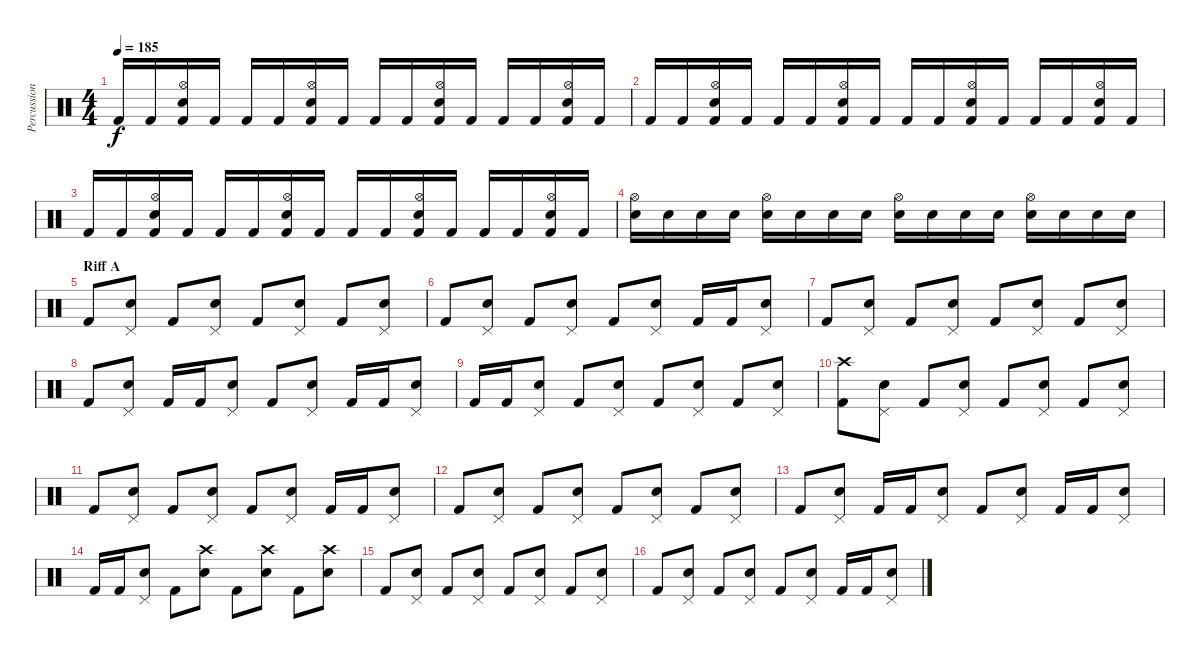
\track ("Percussions" "Percussion") {instrument percussion}
\staff {score}
\articulation defaults
\ts (4 4)
\tempo 185
\clef neutral
\ks c "Kick (hit) 2".16{dy f} "Kick (hit) 2".16
("Hi-Hat (open)" "Snare (hit) 2" "Kick (hit) 2").16 "Kick (hit) 2".16 "Kick (hit) 2".16 "Kick (hit) 2".16 ("Hi-Hat (open)" "Snare (hit) 2" "Kick (hit) 2").16 "Kick (hit) 2".16 "Kick (hit) 2".16 "Kick (hit) 2".16 ("Hi-Hat (open)" "Snare (hit) 2" "Kick (hit) 2").16 "Kick (hit) 2".16 "Kick (hit) 2".16 "Kick (hit) 2".16 ("Hi-Hat (open)" "Snare (hit) 2" "Kick (hit) 2").16 "Kick (hit) 2".16 |
"Kick (hit) 2".16 "Kick (hit) 2".16 ("Hi-Hat (open)" "Snare (hit) 2" "Kick (hit) 2").16 "Kick (hit) 2".16 "Kick (hit) 2".16 "Kick (hit) 2".16 ("Hi-Hat (open)" "Snare (hit) 2" "Kick (hit) 2").16 "Kick (hit) 2".16 "Kick (hit) 2".16 "Kick (hit) 2".16 ("Hi-Hat (open)" "Snare (hit) 2" "Kick (hit) 2").16 "Kick (hit) 2".16 "Kick (hit) 2".16 "Kick (hit) 2".16 ("Hi-Hat (open)" "Snare (hit) 2" "Kick (hit) 2").16 "Kick (hit) 2".16 |
"Kick (hit) 2".16 "Kick (hit) 2".16 ("Hi-Hat (open)" "Snare (hit) 2" "Kick (hit) 2").16 "Kick (hit) 2".16 "Kick (hit) 2".16 "Kick (hit) 2".16 ("Hi-Hat (open)" "Snare (hit) 2" "Kick (hit) 2").16 "Kick (hit) 2".16 "Kick (hit) 2".16 "Kick (hit) 2".16 ("Hi-Hat (open)" "Snare (hit) 2" "Kick (hit) 2").16 "Kick (hit) 2".16 "Kick (hit) 2".16 "Kick (hit) 2".16 ("Hi-Hat (open)" "Snare (hit) 2" "Kick (hit) 2").16 "Kick (hit) 2".16 |
("Hi-Hat (open)" "Snare (hit) 2").16 "Snare (hit) 2".16 "Snare (hit) 2".16 "Snare (hit) 2".16 ("Hi-Hat (open)" "Snare (hit) 2").16 "Snare (hit) 2".16 "Snare (hit) 2".16 "Snare (hit) 2".16 ("Hi-Hat (open)" "Snare (hit) 2").16 "Snare (hit) 2".16 "Snare (hit) 2".16 "Snare (hit) 2".16 ("Hi-Hat (open)" "Snare (hit) 2").16 "Snare (hit) 2".16 "Snare (hit) 2".16 "Snare (hit) 2".16 |
\section ("" "Riff A")
"Kick (hit) 2".8 ("Pedal Hi-Hat (hit)" "Snare (hit) 2").8 "Kick (hit) 2".8 ("Pedal Hi-Hat (hit)" "Snare (hit) 2").8 "Kick (hit) 2".8 ("Pedal Hi-Hat (hit)" "Snare (hit) 2").8 "Kick (hit) 2".8 ("Pedal Hi-Hat (hit)" "Snare (hit) 2").8 |
"Kick (hit) 2".8 ("Pedal Hi-Hat (hit)" "Snare (hit) 2").8 "Kick (hit) 2".8 ("Pedal Hi-Hat (hit)" "Snare (hit) 2").8 "Kick (hit) 2".8 ("Pedal Hi-Hat (hit)" "Snare (hit) 2").8 "Kick (hit) 2".16 "Kick (hit) 2".16 ("Pedal Hi-Hat (hit)" "Snare (hit) 2").8 |
"Kick (hit) 2".8 ("Pedal Hi-Hat (hit)" "Snare (hit) 2").8 "Kick (hit) 2".8 ("Pedal Hi-Hat (hit)" "Snare (hit) 2").8 "Kick (hit) 2".8 ("Pedal Hi-Hat (hit)" "Snare (hit) 2").8 "Kick (hit) 2".8 ("Pedal Hi-Hat (hit)" "Snare (hit) 2").8 |
"Kick (hit) 2".8 ("Pedal Hi-Hat (hit)" "Snare (hit) 2").8 "Kick (hit) 2".16 "Kick (hit) 2".16 ("Pedal Hi-Hat (hit)" "Snare (hit) 2").8 "Kick (hit) 2".8 ("Pedal Hi-Hat (hit)" "Snare (hit) 2").8 "Kick (hit) 2".16 "Kick (hit) 2".16 ("Pedal Hi-Hat (hit)" "Snare (hit) 2").8 |
"Kick (hit) 2".16 "Kick (hit) 2".16 ("Pedal Hi-Hat (hit)" "Snare (hit) 2").8 "Kick (hit) 2".8 ("Pedal Hi-Hat (hit)" "Snare (hit) 2").8 "Kick (hit) 2".8 ("Pedal Hi-Hat (hit)" "Snare (hit) 2").8 "Kick (hit) 2".8 ("Pedal Hi-Hat (hit)" "Snare (hit) 2").8 |
("Crash high (hit)" "Kick (hit) 2").8 ("Pedal Hi-Hat (hit)" "Snare (hit) 2").8 "Kick (hit) 2".8 ("Pedal Hi-Hat (hit)" "Snare (hit) 2").8 "Kick (hit) 2".8 ("Pedal Hi-Hat (hit)" "Snare (hit) 2").8 "Kick (hit) 2".8 ("Pedal Hi-Hat (hit)" "Snare (hit) 2").8 |
"Kick (hit) 2".8 ("Pedal Hi-Hat (hit)" "Snare (hit) 2").8 "Kick (hit) 2".8 ("Pedal Hi-Hat (hit)" "Snare (hit) 2").8 "Kick (hit) 2".8 ("Pedal Hi-Hat (hit)" "Snare (hit) 2").8 "Kick (hit) 2".16 "Kick (hit) 2".16 ("Pedal Hi-Hat (hit)" "Snare (hit) 2").8 |
"Kick (hit) 2".8 ("Pedal Hi-Hat (hit)" "Snare (hit) 2").8 "Kick (hit) 2".8 ("Pedal Hi-Hat (hit)" "Snare (hit) 2").8 "Kick (hit) 2".8 ("Pedal Hi-Hat (hit)" "Snare (hit) 2").8 "Kick (hit) 2".8 ("Pedal Hi-Hat (hit)" "Snare (hit) 2").8 |
"Kick (hit) 2".8 ("Pedal Hi-Hat (hit)" "Snare (hit) 2").8 "Kick (hit) 2".16 "Kick (hit) 2".16 ("Pedal Hi-Hat (hit)" "Snare (hit) 2").8 "Kick (hit) 2".8 ("Pedal Hi-Hat (hit)" "Snare (hit) 2").8 "Kick (hit) 2".16 "Kick (hit) 2".16 ("Pedal Hi-Hat (hit)" "Snare (hit) 2").8 |
"Kick (hit) 2".16 "Kick (hit) 2".16 ("Pedal Hi-Hat (hit)" "Snare (hit) 2").8 "Kick (hit) 2".8 ("Crash high (hit)" "Snare (hit) 2").8 "Kick (hit) 2".8 ("Crash high (hit)" "Snare (hit) 2").8 "Kick (hit) 2".8 ("Crash high (hit)" "Snare (hit) 2").8 |
"Kick (hit) 2".8 ("Pedal Hi-Hat (hit)" "Snare (hit) 2").8 "Kick (hit) 2".8 ("Pedal Hi-Hat (hit)" "Snare (hit) 2").8 "Kick (hit) 2".8 ("Pedal Hi-Hat (hit)" "Snare (hit) 2").8 "Kick (hit) 2".8 ("Pedal Hi-Hat (hit)" "Snare (hit) 2").8 |
"Kick (hit) 2".8 ("Pedal Hi-Hat (hit)" "Snare (hit) 2").8 "Kick (hit) 2".8 ("Pedal Hi-Hat (hit)" "Snare (hit) 2").8 "Kick (hit) 2".8 ("Pedal Hi-Hat (hit)" "Snare (hit) 2").8 "Kick (hit) 2".16 "Kick (hit) 2".16 ("Pedal Hi-Hat (hit)" "Snare (hit) 2").8
